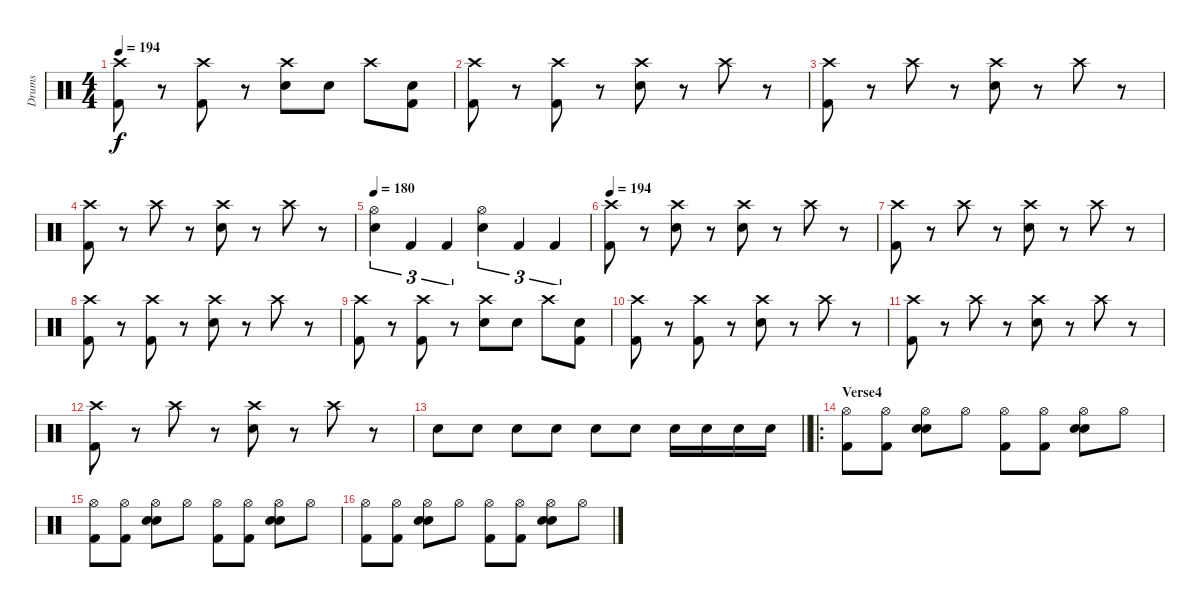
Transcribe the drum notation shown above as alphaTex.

\track ("Drums" "Drums") {solo instrument percussion}
\staff {score}
\articulation defaults
\ts (4 4)
\tempo 194
\clef neutral
\ks c
("Crash high (hit)" "Kick (hit) 2").8{dy f} r.8 ("Crash high (hit)" "Kick (hit) 2").8 r.8 ("Crash high (hit)" "Snare (hit) 2").8 "Snare (hit) 2".8 "Crash high (hit)".8 ("Snare (hit) 2" "Kick (hit) 2").8 |
("Crash high (hit)" "Kick (hit) 2").8 r.8 ("Crash high (hit)" "Kick (hit) 2").8 r.8 ("Crash high (hit)" "Snare (hit) 2").8 r.8 "Crash high (hit)".8 r.8 |
("Crash high (hit)" "Kick (hit) 2").8 r.8 "Crash high (hit)".8 r.8 ("Crash high (hit)" "Snare (hit) 2").8 r.8 "Crash high (hit)".8 r.8 |
("Crash high (hit)" "Kick (hit) 2").8 r.8 "Crash high (hit)".8 r.8 ("Crash high (hit)" "Snare (hit) 2").8 r.8 "Crash high (hit)".8 r.8 |
\tempo 180
("Hi-Hat (open)" "Snare (hit) 2").4{tu (3 2)} "Kick (hit) 2".4{tu (3 2)} "Kick (hit) 2".4{tu (3 2)} ("Hi-Hat (open)" "Snare (hit) 2").4{tu (3 2)} "Kick (hit) 2".4{tu (3 2)} "Kick (hit) 2".4{tu (3 2)} |
\tempo 194
("Crash high (hit)" "Kick (hit) 2").8 r.8 ("Crash high (hit)" "Snare (hit) 2").8 r.8 ("Crash high (hit)" "Snare (hit) 2").8 r.8 "Crash high (hit)".8 r.8 |
("Crash high (hit)" "Kick (hit) 2").8 r.8 "Crash high (hit)".8 r.8 ("Crash high (hit)" "Snare (hit) 2").8 r.8 "Crash high (hit)".8 r.8 |
("Crash high (hit)" "Kick (hit) 2").8 r.8 ("Crash high (hit)" "Kick (hit) 2").8 r.8 ("Crash high (hit)" "Snare (hit) 2").8 r.8 "Crash high (hit)".8 r.8 |
("Crash high (hit)" "Kick (hit) 2").8 r.8 ("Crash high (hit)" "Kick (hit) 2").8 r.8 ("Crash high (hit)" "Snare (hit) 2").8 "Snare (hit) 2".8 "Crash high (hit)".8 ("Snare (hit) 2" "Kick (hit) 2").8 |
("Crash high (hit)" "Kick (hit) 2").8 r.8 ("Crash high (hit)" "Kick (hit) 2").8 r.8 ("Crash high (hit)" "Snare (hit) 2").8 r.8 "Crash high (hit)".8 r.8 |
("Crash high (hit)" "Kick (hit) 2").8 r.8 "Crash high (hit)".8 r.8 ("Crash high (hit)" "Snare (hit) 2").8 r.8 "Crash high (hit)".8 r.8 |
("Crash high (hit)" "Kick (hit) 2").8 r.8 "Crash high (hit)".8 r.8 ("Crash high (hit)" "Snare (hit) 2").8 r.8 "Crash high (hit)".8 r.8 |
\barLineRight lightlight "Snare (hit) 2".8 "Snare (hit) 2".8 "Snare (hit) 2".8 "Snare (hit) 2".8 "Snare (hit) 2".8 "Snare (hit) 2".8 "Snare (hit) 2".16 "Snare (hit) 2".16 "Snare (hit) 2".16 "Snare (hit) 2".16
|
\ro
\section ("" "Verse4")
("Hi-Hat (open)" "Kick (hit) 2").8 ("Hi-Hat (open)" "Kick (hit) 2").8 ("Hi-Hat (open)" "Electric Snare (hit)" "Snare (hit) 2").8 "Hi-Hat (open)".8 ("Hi-Hat (open)" "Kick (hit) 2").8 ("Hi-Hat (open)" "Kick (hit) 2").8 ("Hi-Hat (open)" "Electric Snare (hit)" "Snare (hit) 2").8 "Hi-Hat (open)".8 |
("Hi-Hat (open)" "Kick (hit) 2").8 ("Hi-Hat (open)" "Kick (hit) 2").8 ("Hi-Hat (open)" "Electric Snare (hit)" "Snare (hit) 2").8 "Hi-Hat (open)".8 ("Hi-Hat (open)" "Kick (hit) 2").8 ("Hi-Hat (open)" "Kick (hit) 2").8 ("Hi-Hat (open)" "Electric Snare (hit)" "Snare (hit) 2").8 "Hi-Hat (open)".8 |
("Hi-Hat (open)" "Kick (hit) 2").8 ("Hi-Hat (open)" "Kick (hit) 2").8 ("Hi-Hat (open)" "Electric Snare (hit)" "Snare (hit) 2").8 "Hi-Hat (open)".8 ("Hi-Hat (open)" "Kick (hit) 2").8 ("Hi-Hat (open)" "Kick (hit) 2").8 ("Hi-Hat (open)" "Electric Snare (hit)" "Snare (hit) 2").8 "Hi-Hat (open)".8
